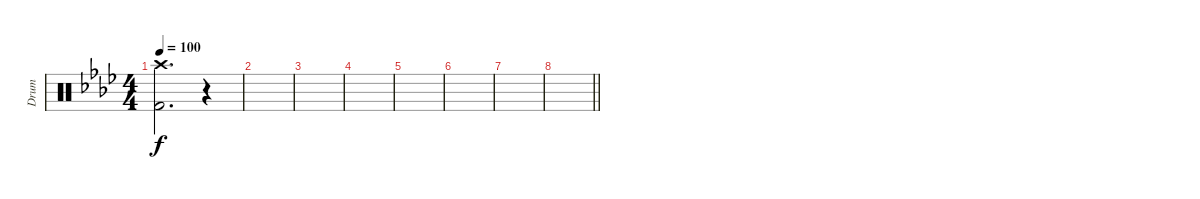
\track ("Drum" "Drum") {instrument percussion}
\staff {score}
\articulation defaults
\ts (4 4)
\tempo 100
\clef neutral
\ks ab
("Crash high (hit)" "Kick (hit) 2").2{d dy f} r.4 |
|
|
|
|
|
|
\barLineRight lightlight
